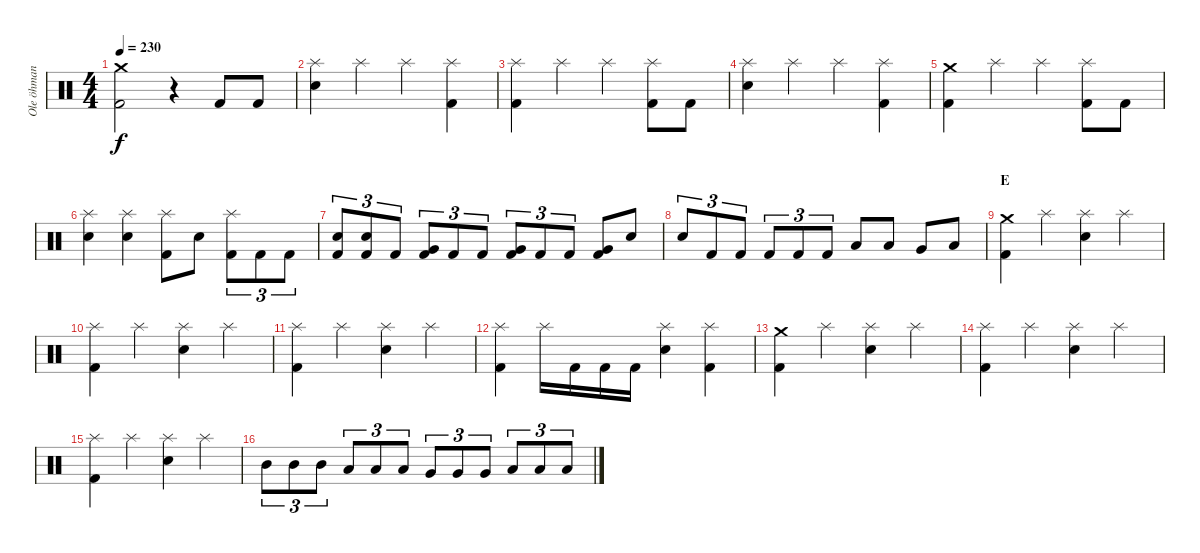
\track ("Ole öhman" "Ole öhman") {instrument percussion}
\staff {score}
\articulation defaults
\ts (4 4)
\tempo 230
\clef neutral
\ks c
("Crash medium (hit)" "Kick (hit) 2").2{dy f} r.4 "Kick (hit) 2".8 "Kick (hit) 2".8 |
("Splash (hit)" "Electric Snare (hit)").4 "Splash (hit)".4 "Splash (hit)".4 ("Splash (hit)" "Kick (hit) 2").4 |
("Splash (hit)" "Kick (hit) 2").4 "Splash (hit)".4 "Splash (hit)".4 ("Splash (hit)" "Kick (hit) 2").8 "Kick (hit) 2".8 |
("Splash (hit)" "Electric Snare (hit)").4 "Splash (hit)".4 "Splash (hit)".4 ("Splash (hit)" "Kick (hit) 2").4 |
("Crash medium (hit)" "Kick (hit) 2").4 "Splash (hit)".4 "Splash (hit)".4 ("Splash (hit)" "Kick (hit) 2").8 "Kick (hit) 2".8 |
("Splash (hit)" "Electric Snare (hit)").4 ("Splash (hit)" "Electric Snare (hit)").4 ("Splash (hit)" "Kick (hit) 2").8 "Electric Snare (hit)".8 ("Splash (hit)" "Kick (hit) 2").8{tu (3 2)} "Kick (hit) 2".8{tu (3 2)} "Kick (hit) 2".8{tu (3 2)} |
("Electric Snare (hit)" "Kick (hit) 2").8{tu (3 2)} ("Electric Snare (hit)" "Kick (hit) 2").8{tu (3 2)} "Kick (hit) 2".8{tu (3 2)} ("Very Low Tom (hit)" "Kick (hit) 2").8{tu (3 2)} "Kick (hit) 2".8{tu (3 2)} "Kick (hit) 2".8{tu (3 2)} ("Very Low Tom (hit)" "Kick (hit) 2").8{tu (3 2)} "Kick (hit) 2".8{tu (3 2)} "Kick (hit) 2".8{tu (3 2)} ("Very Low Tom (hit)" "Kick (hit) 2").8 "Electric Snare (hit)".8 |
"Electric Snare (hit)".8{tu (3 2)} "Kick (hit) 2".8{tu (3 2)} "Kick (hit) 2".8{tu (3 2)} "Kick (hit) 2".8{tu (3 2)} "Kick (hit) 2".8{tu (3 2)} "Kick (hit) 2".8{tu (3 2)} "Low Tom (hit)".8 "Low Tom (hit)".8 "Very Low Tom (hit)".8 "Low Floor Tom (hit)".8 |
\section ("" "E")
("Crash medium (hit)" "Kick (hit) 2").4 "Splash (hit)".4 ("Splash (hit)" "Electric Snare (hit)").4 "Splash (hit)".4 |
("Splash (hit)" "Kick (hit) 2").4 "Splash (hit)".4 ("Splash (hit)" "Electric Snare (hit)").4 "Splash (hit)".4 |
("Splash (hit)" "Kick (hit) 2").4 "Splash (hit)".4 ("Splash (hit)" "Electric Snare (hit)").4 "Splash (hit)".4 |
("Splash (hit)" "Kick (hit) 2").4 "Splash (hit)".16 "Kick (hit) 2".16 "Kick (hit) 2".16 "Kick (hit) 2".16 ("Splash (hit)" "Electric Snare (hit)").4 ("Splash (hit)" "Kick (hit) 2").4 |
("Crash medium (hit)" "Kick (hit) 2").4 "Splash (hit)".4 ("Splash (hit)" "Electric Snare (hit)").4 "Splash (hit)".4 |
("Splash (hit)" "Kick (hit) 2").4 "Splash (hit)".4 ("Splash (hit)" "Electric Snare (hit)").4 "Splash (hit)".4 |
("Splash (hit)" "Kick (hit) 2").4 "Splash (hit)".4 ("Splash (hit)" "Electric Snare (hit)").4 "Splash (hit)".4 |
"Mid Tom (hit)".8{tu (3 2)} "Mid Tom (hit)".8{tu (3 2)} "Mid Tom (hit)".8{tu (3 2)} "Low Tom (hit)".8{tu (3 2)} "Low Tom (hit)".8{tu (3 2)} "Low Tom (hit)".8{tu (3 2)} "Very Low Tom (hit)".8{tu (3 2)} "Very Low Tom (hit)".8{tu (3 2)} "Very Low Tom (hit)".8{tu (3 2)} "Low Floor Tom (hit)".8{tu (3 2)} "Low Floor Tom (hit)".8{tu (3 2)} "Low Floor Tom (hit)".8{tu (3 2)}
